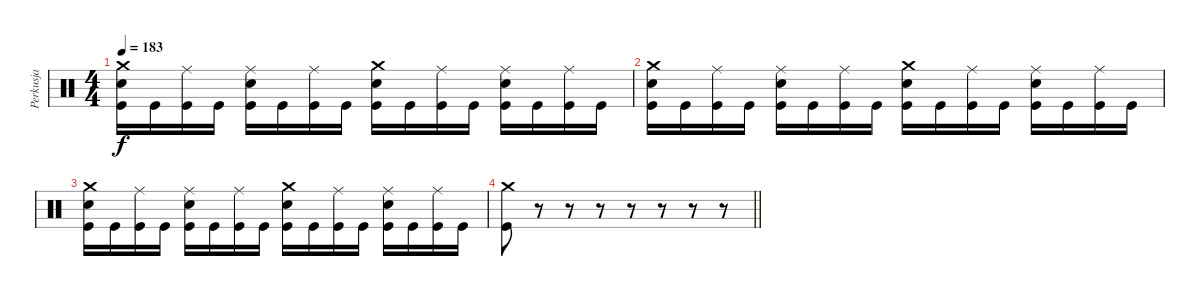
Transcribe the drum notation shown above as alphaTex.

\track ("Perkusja" "Perkusja") {instrument percussion}
\staff {score}
\articulation defaults
\ts (4 4)
\tempo 183
\clef neutral
\ks c
("Kick (hit)" "Snare (hit) 2" "Crash medium (hit)").16{dy f} "Kick (hit)".16 ("Kick (hit)" "Ride (middle)").16 "Kick (hit)".16 ("Kick (hit)" "Ride (middle)" "Snare (hit) 2").16 "Kick (hit)".16 ("Kick (hit)" "Ride (middle)").16 "Kick (hit)".16 ("Kick (hit)" "Snare (hit) 2" "Crash medium (hit)").16 "Kick (hit)".16 ("Kick (hit)" "Ride (middle)").16 "Kick (hit)".16 ("Kick (hit)" "Ride (middle)" "Snare (hit) 2").16 "Kick (hit)".16 ("Kick (hit)" "Ride (middle)").16 "Kick (hit)".16 |
("Kick (hit)" "Snare (hit) 2" "Crash medium (hit)").16 "Kick (hit)".16 ("Kick (hit)" "Ride (middle)").16 "Kick (hit)".16 ("Kick (hit)" "Ride (middle)" "Snare (hit) 2").16 "Kick (hit)".16 ("Kick (hit)" "Ride (middle)").16 "Kick (hit)".16 ("Kick (hit)" "Snare (hit) 2" "Crash medium (hit)").16 "Kick (hit)".16 ("Kick (hit)" "Ride (middle)").16 "Kick (hit)".16 ("Kick (hit)" "Ride (middle)" "Snare (hit) 2").16 "Kick (hit)".16 ("Kick (hit)" "Ride (middle)").16 "Kick (hit)".16 |
("Kick (hit)" "Snare (hit) 2" "Crash medium (hit)").16 "Kick (hit)".16 ("Kick (hit)" "Ride (middle)").16 "Kick (hit)".16 ("Kick (hit)" "Ride (middle)" "Snare (hit) 2").16 "Kick (hit)".16 ("Kick (hit)" "Ride (middle)").16 "Kick (hit)".16 ("Kick (hit)" "Snare (hit) 2" "Crash medium (hit)").16 "Kick (hit)".16 ("Kick (hit)" "Ride (middle)").16 "Kick (hit)".16 ("Kick (hit)" "Ride (middle)" "Snare (hit) 2").16 "Kick (hit)".16 ("Kick (hit)" "Ride (middle)").16 "Kick (hit)".16 |
\barLineRight lightlight
("Kick (hit)" "Crash medium (hit)").8 r.8 r.8 r.8 r.8 r.8 r.8 r.8
